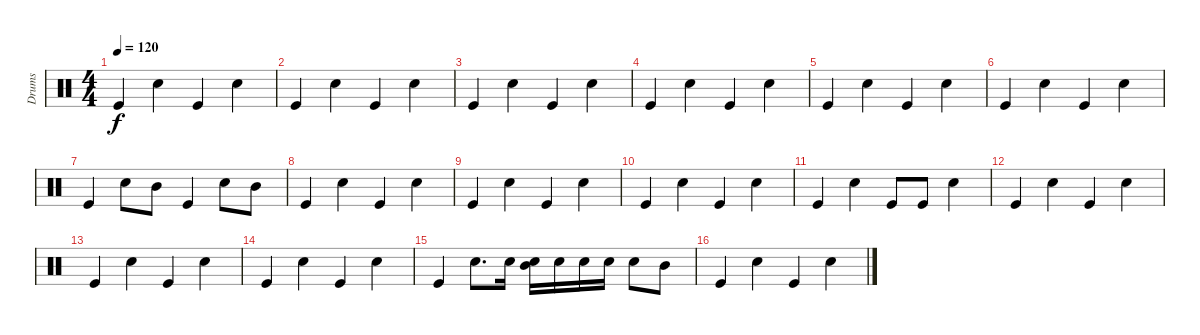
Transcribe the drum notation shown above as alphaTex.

\track ("Drums" "Drums") {instrument percussion}
\staff {score}
\articulation defaults
\ts (4 4)
\tempo 120
\clef neutral
\ks c "Kick (hit)".4{dy f} "Snare (hit) 2".4 "Kick (hit)".4 "Snare (hit) 2".4
|
"Kick (hit)".4 "Snare (hit) 2".4 "Kick (hit)".4 "Snare (hit) 2".4 |
"Kick (hit)".4 "Snare (hit) 2".4 "Kick (hit)".4 "Snare (hit) 2".4 |
"Kick (hit)".4 "Snare (hit) 2".4 "Kick (hit)".4 "Snare (hit) 2".4 |
"Kick (hit)".4 "Snare (hit) 2".4 "Kick (hit)".4 "Snare (hit) 2".4 |
"Kick (hit)".4 "Snare (hit) 2".4 "Kick (hit)".4 "Snare (hit) 2".4 |
"Kick (hit)".4 "Snare (hit) 2".8 "Mid Tom (hit)".8 "Kick (hit)".4 "Snare (hit) 2".8 "Mid Tom (hit)".8 |
"Kick (hit)".4 "Snare (hit) 2".4 "Kick (hit)".4 "Snare (hit) 2".4 |
"Kick (hit)".4 "Snare (hit) 2".4 "Kick (hit)".4 "Snare (hit) 2".4 |
"Kick (hit)".4 "Snare (hit) 2".4 "Kick (hit)".4 "Snare (hit) 2".4 |
"Kick (hit)".4 "Snare (hit) 2".4 "Kick (hit)".8 "Kick (hit)".8 "Snare (hit) 2".4 |
"Kick (hit)".4 "Snare (hit) 2".4 "Kick (hit)".4 "Snare (hit) 2".4 |
"Kick (hit)".4 "Snare (hit) 2".4 "Kick (hit)".4 "Snare (hit) 2".4 |
"Kick (hit)".4 "Snare (hit) 2".4 "Kick (hit)".4 "Snare (hit) 2".4 |
"Kick (hit)".4 "Snare (hit) 2".8{d} "Snare (hit) 2".16 ("Mid Tom (hit)" "Snare (hit) 2").16 "Snare (hit) 2".16 "Snare (hit) 2".16 "Snare (hit) 2".16 "Snare (hit) 2".8 "Mid Tom (hit)".8 |
"Kick (hit)".4 "Snare (hit) 2".4 "Kick (hit)".4 "Snare (hit) 2".4
